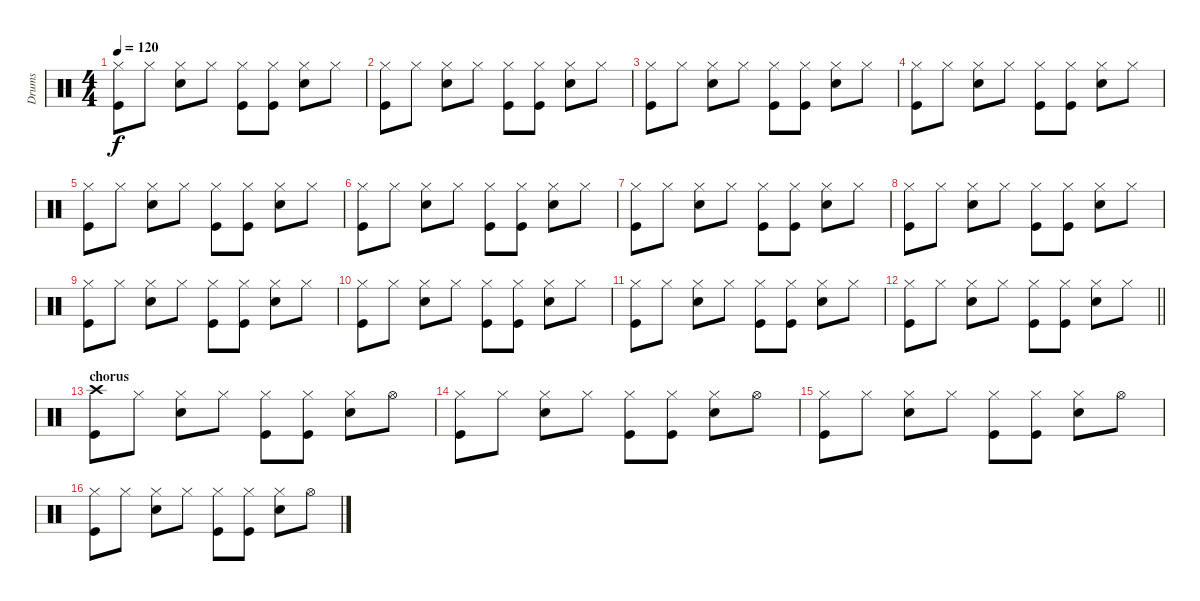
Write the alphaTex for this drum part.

\track ("Drums" "Drums") {instrument percussion}
\staff {score}
\articulation defaults
\ts (4 4)
\tempo 120
\clef neutral
\ks c
("Hi-Hat (closed)" "Kick (hit)").8{dy f} "Hi-Hat (closed)".8 ("Hi-Hat (closed)" "Electric Snare (hit)").8 "Hi-Hat (closed)".8 ("Hi-Hat (closed)" "Kick (hit)").8 ("Hi-Hat (closed)" "Kick (hit)").8 ("Hi-Hat (closed)" "Electric Snare (hit)").8 "Hi-Hat (closed)".8 |
("Hi-Hat (closed)" "Kick (hit)").8 "Hi-Hat (closed)".8 ("Hi-Hat (closed)" "Electric Snare (hit)").8 "Hi-Hat (closed)".8 ("Hi-Hat (closed)" "Kick (hit)").8 ("Hi-Hat (closed)" "Kick (hit)").8 ("Hi-Hat (closed)" "Electric Snare (hit)").8 "Hi-Hat (closed)".8 |
("Hi-Hat (closed)" "Kick (hit)").8 "Hi-Hat (closed)".8 ("Hi-Hat (closed)" "Electric Snare (hit)").8 "Hi-Hat (closed)".8 ("Hi-Hat (closed)" "Kick (hit)").8 ("Hi-Hat (closed)" "Kick (hit)").8 ("Hi-Hat (closed)" "Electric Snare (hit)").8 "Hi-Hat (closed)".8 |
("Hi-Hat (closed)" "Kick (hit)").8 "Hi-Hat (closed)".8 ("Hi-Hat (closed)" "Electric Snare (hit)").8 "Hi-Hat (closed)".8 ("Hi-Hat (closed)" "Kick (hit)").8 ("Hi-Hat (closed)" "Kick (hit)").8 ("Hi-Hat (closed)" "Electric Snare (hit)").8 "Hi-Hat (closed)".8 |
("Hi-Hat (closed)" "Kick (hit)").8 "Hi-Hat (closed)".8 ("Hi-Hat (closed)" "Electric Snare (hit)").8 "Hi-Hat (closed)".8 ("Hi-Hat (closed)" "Kick (hit)").8 ("Hi-Hat (closed)" "Kick (hit)").8 ("Hi-Hat (closed)" "Electric Snare (hit)").8 "Hi-Hat (closed)".8 |
("Hi-Hat (closed)" "Kick (hit)").8 "Hi-Hat (closed)".8 ("Hi-Hat (closed)" "Electric Snare (hit)").8 "Hi-Hat (closed)".8 ("Hi-Hat (closed)" "Kick (hit)").8 ("Hi-Hat (closed)" "Kick (hit)").8 ("Hi-Hat (closed)" "Electric Snare (hit)").8 "Hi-Hat (closed)".8 |
("Hi-Hat (closed)" "Kick (hit)").8 "Hi-Hat (closed)".8 ("Hi-Hat (closed)" "Electric Snare (hit)").8 "Hi-Hat (closed)".8 ("Hi-Hat (closed)" "Kick (hit)").8 ("Hi-Hat (closed)" "Kick (hit)").8 ("Hi-Hat (closed)" "Electric Snare (hit)").8 "Hi-Hat (closed)".8 |
("Hi-Hat (closed)" "Kick (hit)").8 "Hi-Hat (closed)".8 ("Hi-Hat (closed)" "Electric Snare (hit)").8 "Hi-Hat (closed)".8 ("Hi-Hat (closed)" "Kick (hit)").8 ("Hi-Hat (closed)" "Kick (hit)").8 ("Hi-Hat (closed)" "Electric Snare (hit)").8 "Hi-Hat (closed)".8 |
("Hi-Hat (closed)" "Kick (hit)").8 "Hi-Hat (closed)".8 ("Hi-Hat (closed)" "Electric Snare (hit)").8 "Hi-Hat (closed)".8 ("Hi-Hat (closed)" "Kick (hit)").8 ("Hi-Hat (closed)" "Kick (hit)").8 ("Hi-Hat (closed)" "Electric Snare (hit)").8 "Hi-Hat (closed)".8 |
("Hi-Hat (closed)" "Kick (hit)").8 "Hi-Hat (closed)".8 ("Hi-Hat (closed)" "Electric Snare (hit)").8 "Hi-Hat (closed)".8 ("Hi-Hat (closed)" "Kick (hit)").8 ("Hi-Hat (closed)" "Kick (hit)").8 ("Hi-Hat (closed)" "Electric Snare (hit)").8 "Hi-Hat (closed)".8 |
("Hi-Hat (closed)" "Kick (hit)").8 "Hi-Hat (closed)".8 ("Hi-Hat (closed)" "Electric Snare (hit)").8 "Hi-Hat (closed)".8 ("Hi-Hat (closed)" "Kick (hit)").8 ("Hi-Hat (closed)" "Kick (hit)").8 ("Hi-Hat (closed)" "Electric Snare (hit)").8 "Hi-Hat (closed)".8 |
\barLineRight lightlight
("Hi-Hat (closed)" "Kick (hit)").8 "Hi-Hat (closed)".8 ("Hi-Hat (closed)" "Electric Snare (hit)").8 "Hi-Hat (closed)".8 ("Hi-Hat (closed)" "Kick (hit)").8 ("Hi-Hat (closed)" "Kick (hit)").8 ("Hi-Hat (closed)" "Electric Snare (hit)").8 "Hi-Hat (closed)".8 |
\section ("" "chorus")
("Crash high (hit)" "Kick (hit)").8 "Hi-Hat (closed)".8 ("Hi-Hat (closed)" "Electric Snare (hit)").8 "Hi-Hat (closed)".8 ("Hi-Hat (closed)" "Kick (hit)").8 ("Hi-Hat (closed)" "Kick (hit)").8 ("Hi-Hat (closed)" "Electric Snare (hit)").8 "Hi-Hat (open)".8 |
("Hi-Hat (closed)" "Kick (hit)").8 "Hi-Hat (closed)".8 ("Hi-Hat (closed)" "Electric Snare (hit)").8 "Hi-Hat (closed)".8 ("Hi-Hat (closed)" "Kick (hit)").8 ("Hi-Hat (closed)" "Kick (hit)").8 ("Hi-Hat (closed)" "Electric Snare (hit)").8 "Hi-Hat (open)".8 |
("Hi-Hat (closed)" "Kick (hit)").8 "Hi-Hat (closed)".8 ("Hi-Hat (closed)" "Electric Snare (hit)").8 "Hi-Hat (closed)".8 ("Hi-Hat (closed)" "Kick (hit)").8 ("Hi-Hat (closed)" "Kick (hit)").8 ("Hi-Hat (closed)" "Electric Snare (hit)").8 "Hi-Hat (open)".8 |
("Hi-Hat (closed)" "Kick (hit)").8 "Hi-Hat (closed)".8 ("Hi-Hat (closed)" "Electric Snare (hit)").8 "Hi-Hat (closed)".8 ("Hi-Hat (closed)" "Kick (hit)").8 ("Hi-Hat (closed)" "Kick (hit)").8 ("Hi-Hat (closed)" "Electric Snare (hit)").8 "Hi-Hat (open)".8
